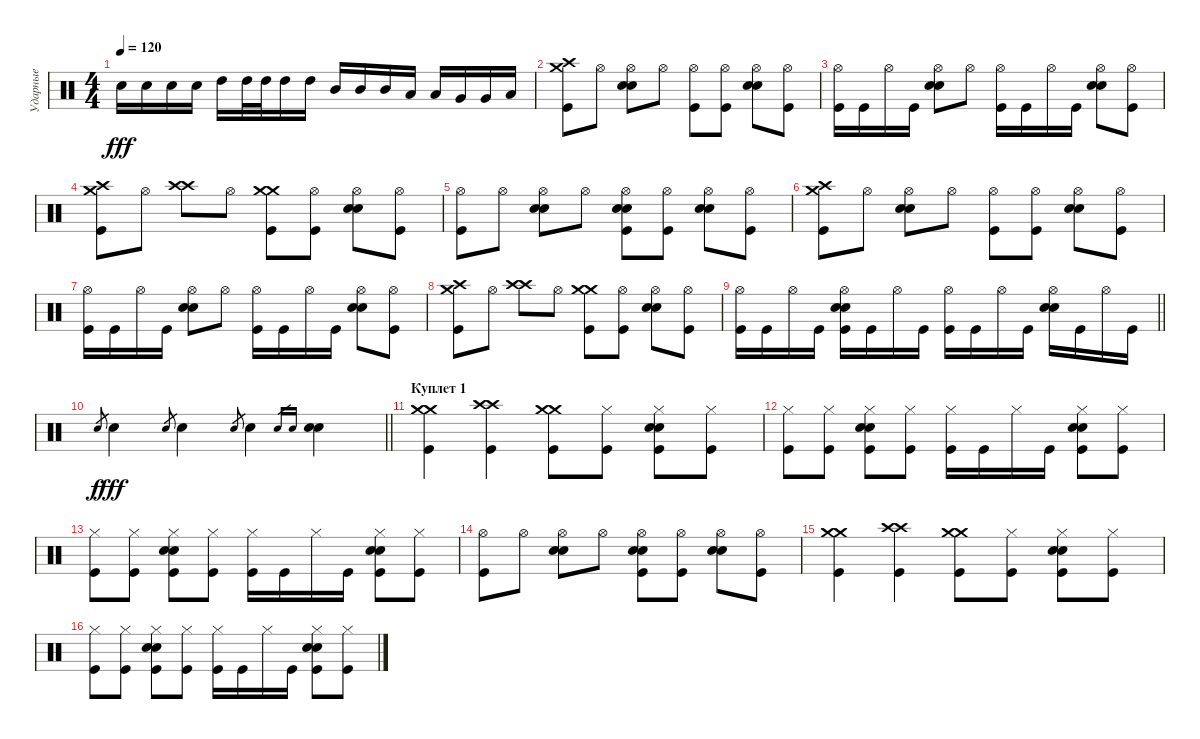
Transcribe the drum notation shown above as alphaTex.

\track ("Ударные" "Ударные") {instrument percussion}
\staff {score}
\articulation defaults
\ts (4 4)
\tempo 120
\clef neutral
\ks c "Electric Snare (hit)".16{dy fff} "Electric Snare (hit)".16 "Electric Snare (hit)".16 "Electric Snare (hit)".16 "High Tom (hit)".16 "High Tom (hit)".32 "High Tom (hit)".32 "High Tom (hit)".16 "High Tom (hit)".16 "Mid Tom (hit)".16 "Mid Tom (hit)".16 "Mid Tom (hit)".16 "Low Tom (hit)".16 "Low Tom (hit)".16 "Very Low Tom (hit)".16 "Very Low Tom (hit)".16 "Low Floor Tom (hit)".16
|
("Crash high (hit)" "Crash medium (hit)" "Kick (hit)").8 "Hi-Hat (open)".8 ("Hi-Hat (open)" "Electric Snare (hit)" "Snare (hit) 2").8 "Hi-Hat (open)".8 ("Hi-Hat (open)" "Kick (hit)").8 ("Hi-Hat (open)" "Kick (hit)").8 ("Hi-Hat (open)" "Electric Snare (hit)" "Snare (hit) 2").8 ("Hi-Hat (open)" "Kick (hit)").8 |
("Hi-Hat (open)" "Kick (hit)").16 "Kick (hit)".16 "Hi-Hat (open)".16 "Kick (hit)".16 ("Hi-Hat (open)" "Electric Snare (hit)" "Snare (hit) 2").8 "Hi-Hat (open)".8 ("Hi-Hat (open)" "Kick (hit)").16 "Kick (hit)".16 "Hi-Hat (open)".16 "Kick (hit)".16 ("Hi-Hat (open)" "Electric Snare (hit)" "Snare (hit) 2").8 ("Hi-Hat (open)" "Kick (hit)").8 |
("Crash high (hit)" "Crash medium (hit)" "Kick (hit)").8 "Hi-Hat (open)".8 ("Crash high (hit)" "Crash high (hit)").8 "Hi-Hat (open)".8 ("Crash medium (hit)" "Crash medium (hit)" "Kick (hit)").8 ("Hi-Hat (open)" "Kick (hit)").8 ("Hi-Hat (open)" "Electric Snare (hit)" "Snare (hit) 2").8 ("Hi-Hat (open)" "Kick (hit)").8 |
("Hi-Hat (open)" "Kick (hit)").8 "Hi-Hat (open)".8 ("Hi-Hat (open)" "Electric Snare (hit)" "Snare (hit) 2").8 "Hi-Hat (open)".8 ("Hi-Hat (open)" "Snare (hit) 2" "Electric Snare (hit)" "Kick (hit)").8 ("Hi-Hat (open)" "Kick (hit)").8 ("Hi-Hat (open)" "Electric Snare (hit)" "Snare (hit) 2").8 ("Hi-Hat (open)" "Kick (hit)").8 |
("Crash high (hit)" "Crash medium (hit)" "Kick (hit)").8 "Hi-Hat (open)".8 ("Hi-Hat (open)" "Electric Snare (hit)" "Snare (hit) 2").8 "Hi-Hat (open)".8 ("Hi-Hat (open)" "Kick (hit)").8 ("Hi-Hat (open)" "Kick (hit)").8 ("Hi-Hat (open)" "Electric Snare (hit)" "Snare (hit) 2").8 ("Hi-Hat (open)" "Kick (hit)").8 |
("Hi-Hat (open)" "Kick (hit)").16 "Kick (hit)".16 "Hi-Hat (open)".16 "Kick (hit)".16 ("Hi-Hat (open)" "Electric Snare (hit)" "Snare (hit) 2").8 "Hi-Hat (open)".8 ("Hi-Hat (open)" "Kick (hit)").16 "Kick (hit)".16 "Hi-Hat (open)".16 "Kick (hit)".16 ("Hi-Hat (open)" "Electric Snare (hit)" "Snare (hit) 2").8 ("Hi-Hat (open)" "Kick (hit)").8 |
("Crash high (hit)" "Crash medium (hit)" "Kick (hit)").8 "Hi-Hat (open)".8 ("Crash high (hit)" "Crash high (hit)").8 "Hi-Hat (open)".8 ("Crash medium (hit)" "Crash medium (hit)" "Kick (hit)").8 ("Hi-Hat (open)" "Kick (hit)").8 ("Hi-Hat (open)" "Electric Snare (hit)" "Snare (hit) 2").8 ("Hi-Hat (open)" "Kick (hit)").8 |
\barLineRight lightlight
("Hi-Hat (open)" "Kick (hit)").16 "Kick (hit)".16 "Hi-Hat (open)".16 "Kick (hit)".16 ("Hi-Hat (open)" "Electric Snare (hit)" "Snare (hit) 2" "Kick (hit)").16 "Kick (hit)".16 "Hi-Hat (open)".16 "Kick (hit)".16 ("Hi-Hat (open)" "Kick (hit)").16 "Kick (hit)".16 "Hi-Hat (open)".16 "Kick (hit)".16 ("Hi-Hat (open)" "Snare (hit) 2" "Electric Snare (hit)").16 "Kick (hit)".16 "Hi-Hat (open)".16 "Kick (hit)".16 |
\barLineRight lightlight "Electric Snare (hit)".8{gr dy f} "Electric Snare (hit)".4{dy fff} "Electric Snare (hit)".8{gr} "Electric Snare (hit)".4 "Electric Snare (hit)".8{gr} "Electric Snare (hit)".4 "Snare (hit) 2".16{gr} "Snare (hit) 2".16{gr}
("Snare (hit) 2" "Snare (hit) 2").4 |
\section ("" "Куплет 1")
("Crash medium (hit)" "Crash medium (hit)" "Kick (hit)").4 ("Crash high (hit)" "Crash high (hit)" "Kick (hit)").4 ("Crash medium (hit)" "Crash medium (hit)" "Kick (hit)").8 ("Hi-Hat (closed)" "Kick (hit)").8 ("Snare (hit) 2" "Electric Snare (hit)" "Kick (hit)" "Hi-Hat (closed)").8 ("Hi-Hat (closed)" "Kick (hit)").8 |
("Hi-Hat (closed)" "Kick (hit)").8 ("Hi-Hat (closed)" "Kick (hit)").8 ("Snare (hit) 2" "Electric Snare (hit)" "Kick (hit)" "Hi-Hat (closed)").8 ("Kick (hit)" "Hi-Hat (closed)").8 ("Kick (hit)" "Hi-Hat (closed)").16 "Kick (hit)".16 "Hi-Hat (closed)".16 "Kick (hit)".16 ("Snare (hit) 2" "Electric Snare (hit)" "Kick (hit)" "Hi-Hat (closed)").8 ("Kick (hit)" "Hi-Hat (closed)").8 |
("Hi-Hat (closed)" "Kick (hit)").8 ("Hi-Hat (closed)" "Kick (hit)").8 ("Snare (hit) 2" "Electric Snare (hit)" "Kick (hit)" "Hi-Hat (closed)").8 ("Kick (hit)" "Hi-Hat (closed)").8 ("Kick (hit)" "Hi-Hat (closed)").16 "Kick (hit)".16 "Hi-Hat (closed)".16 "Kick (hit)".16 ("Snare (hit) 2" "Electric Snare (hit)" "Kick (hit)" "Hi-Hat (closed)").8 ("Kick (hit)" "Hi-Hat (closed)").8 |
("Hi-Hat (open)" "Kick (hit)").8 "Hi-Hat (open)".8 ("Hi-Hat (open)" "Electric Snare (hit)" "Snare (hit) 2").8 "Hi-Hat (open)".8 ("Hi-Hat (open)" "Snare (hit) 2" "Electric Snare (hit)" "Kick (hit)").8 ("Hi-Hat (open)" "Kick (hit)").8 ("Hi-Hat (open)" "Electric Snare (hit)" "Snare (hit) 2").8 ("Hi-Hat (open)" "Kick (hit)").8 |
("Crash medium (hit)" "Crash medium (hit)" "Kick (hit)").4 ("Crash high (hit)" "Crash high (hit)" "Kick (hit)").4 ("Crash medium (hit)" "Crash medium (hit)" "Kick (hit)").8 ("Hi-Hat (closed)" "Kick (hit)").8 ("Snare (hit) 2" "Electric Snare (hit)" "Kick (hit)" "Hi-Hat (closed)").8 ("Hi-Hat (closed)" "Kick (hit)").8 |
("Hi-Hat (closed)" "Kick (hit)").8 ("Hi-Hat (closed)" "Kick (hit)").8 ("Snare (hit) 2" "Electric Snare (hit)" "Kick (hit)" "Hi-Hat (closed)").8 ("Kick (hit)" "Hi-Hat (closed)").8 ("Kick (hit)" "Hi-Hat (closed)").16 "Kick (hit)".16 "Hi-Hat (closed)".16 "Kick (hit)".16 ("Snare (hit) 2" "Electric Snare (hit)" "Kick (hit)" "Hi-Hat (closed)").8 ("Kick (hit)" "Hi-Hat (closed)").8
